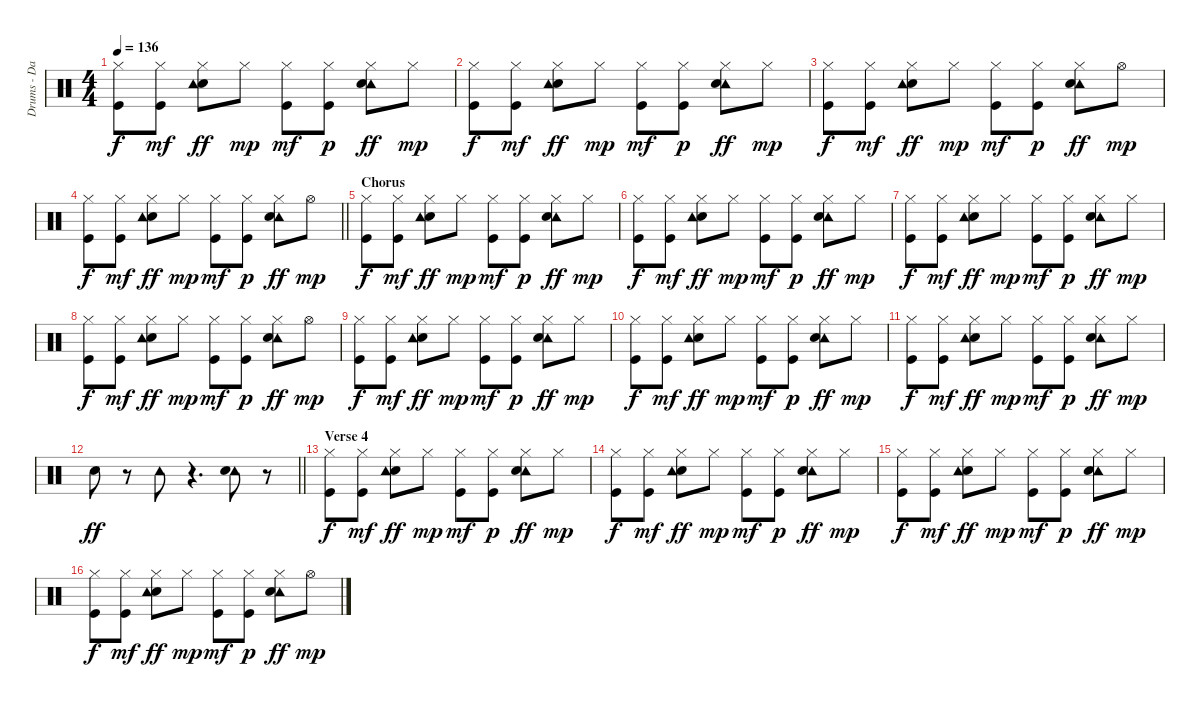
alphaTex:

\track ("Drums - Danny Smythe" "Drums - Da") {instrument percussion}
\staff {score}
\articulation defaults
\ts (4 4)
\tempo 136
\clef neutral
\ks c
("Hi-Hat (closed)" "Kick (hit)").8{dy f} ("Hi-Hat (closed)" "Kick (hit)").8{dy mf} ("Hi-Hat (closed)" "Electric Snare (hit)" "Tambourine (hit)").8{dy ff} "Hi-Hat (closed)".8{dy mp} ("Hi-Hat (closed)" "Kick (hit)").8{dy mf} ("Hi-Hat (closed)" "Kick (hit)").8{dy p} ("Tambourine (hit)" "Hi-Hat (closed)" "Electric Snare (hit)").8{dy ff} "Hi-Hat (closed)".8{dy mp} |
("Hi-Hat (closed)" "Kick (hit)").8{dy f} ("Hi-Hat (closed)" "Kick (hit)").8{dy mf} ("Hi-Hat (closed)" "Electric Snare (hit)" "Tambourine (hit)").8{dy ff} "Hi-Hat (closed)".8{dy mp} ("Hi-Hat (closed)" "Kick (hit)").8{dy mf} ("Hi-Hat (closed)" "Kick (hit)").8{dy p} ("Tambourine (hit)" "Hi-Hat (closed)" "Electric Snare (hit)").8{dy ff} "Hi-Hat (closed)".8{dy mp} |
("Hi-Hat (closed)" "Kick (hit)").8{dy f} ("Hi-Hat (closed)" "Kick (hit)").8{dy mf} ("Hi-Hat (closed)" "Electric Snare (hit)" "Tambourine (hit)").8{dy ff} "Hi-Hat (closed)".8{dy mp} ("Hi-Hat (closed)" "Kick (hit)").8{dy mf} ("Hi-Hat (closed)" "Kick (hit)").8{dy p} ("Tambourine (hit)" "Hi-Hat (closed)" "Electric Snare (hit)").8{dy ff} "Hi-Hat (open)".8{dy mp} |
\barLineRight lightlight
("Hi-Hat (closed)" "Kick (hit)").8{dy f} ("Hi-Hat (closed)" "Kick (hit)").8{dy mf} ("Hi-Hat (closed)" "Electric Snare (hit)" "Tambourine (hit)").8{dy ff} "Hi-Hat (closed)".8{dy mp} ("Hi-Hat (closed)" "Kick (hit)").8{dy mf} ("Hi-Hat (closed)" "Kick (hit)").8{dy p} ("Tambourine (hit)" "Hi-Hat (closed)" "Electric Snare (hit)").8{dy ff} "Hi-Hat (open)".8{dy mp} |
\section ("" "Chorus")
("Hi-Hat (closed)" "Kick (hit)").8{dy f} ("Hi-Hat (closed)" "Kick (hit)").8{dy mf} ("Hi-Hat (closed)" "Electric Snare (hit)" "Tambourine (hit)").8{dy ff} "Hi-Hat (closed)".8{dy mp} ("Hi-Hat (closed)" "Kick (hit)").8{dy mf} ("Hi-Hat (closed)" "Kick (hit)").8{dy p} ("Tambourine (hit)" "Hi-Hat (closed)" "Electric Snare (hit)").8{dy ff} "Hi-Hat (closed)".8{dy mp} |
("Hi-Hat (closed)" "Kick (hit)").8{dy f} ("Hi-Hat (closed)" "Kick (hit)").8{dy mf} ("Hi-Hat (closed)" "Electric Snare (hit)" "Tambourine (hit)").8{dy ff} "Hi-Hat (closed)".8{dy mp} ("Hi-Hat (closed)" "Kick (hit)").8{dy mf} ("Hi-Hat (closed)" "Kick (hit)").8{dy p} ("Tambourine (hit)" "Hi-Hat (closed)" "Electric Snare (hit)").8{dy ff} "Hi-Hat (closed)".8{dy mp} |
("Hi-Hat (closed)" "Kick (hit)").8{dy f} ("Hi-Hat (closed)" "Kick (hit)").8{dy mf} ("Hi-Hat (closed)" "Electric Snare (hit)" "Tambourine (hit)").8{dy ff} "Hi-Hat (closed)".8{dy mp} ("Hi-Hat (closed)" "Kick (hit)").8{dy mf} ("Hi-Hat (closed)" "Kick (hit)").8{dy p} ("Tambourine (hit)" "Hi-Hat (closed)" "Electric Snare (hit)").8{dy ff} "Hi-Hat (closed)".8{dy mp} |
("Hi-Hat (closed)" "Kick (hit)").8{dy f} ("Hi-Hat (closed)" "Kick (hit)").8{dy mf} ("Hi-Hat (closed)" "Electric Snare (hit)" "Tambourine (hit)").8{dy ff} "Hi-Hat (closed)".8{dy mp} ("Hi-Hat (closed)" "Kick (hit)").8{dy mf} ("Hi-Hat (closed)" "Kick (hit)").8{dy p} ("Tambourine (hit)" "Hi-Hat (closed)" "Electric Snare (hit)").8{dy ff} "Hi-Hat (open)".8{dy mp} |
("Hi-Hat (closed)" "Kick (hit)").8{dy f} ("Hi-Hat (closed)" "Kick (hit)").8{dy mf} ("Hi-Hat (closed)" "Electric Snare (hit)" "Tambourine (hit)").8{dy ff} "Hi-Hat (closed)".8{dy mp} ("Hi-Hat (closed)" "Kick (hit)").8{dy mf} ("Hi-Hat (closed)" "Kick (hit)").8{dy p} ("Tambourine (hit)" "Hi-Hat (closed)" "Electric Snare (hit)").8{dy ff} "Hi-Hat (closed)".8{dy mp} |
("Hi-Hat (closed)" "Kick (hit)").8{dy f} ("Hi-Hat (closed)" "Kick (hit)").8{dy mf} ("Hi-Hat (closed)" "Electric Snare (hit)" "Tambourine (hit)").8{dy ff} "Hi-Hat (closed)".8{dy mp} ("Hi-Hat (closed)" "Kick (hit)").8{dy mf} ("Hi-Hat (closed)" "Kick (hit)").8{dy p} ("Tambourine (hit)" "Hi-Hat (closed)" "Electric Snare (hit)").8{dy ff} "Hi-Hat (closed)".8{dy mp} |
("Hi-Hat (closed)" "Kick (hit)").8{dy f} ("Hi-Hat (closed)" "Kick (hit)").8{dy mf} ("Hi-Hat (closed)" "Electric Snare (hit)" "Tambourine (hit)").8{dy ff} "Hi-Hat (closed)".8{dy mp} ("Hi-Hat (closed)" "Kick (hit)").8{dy mf} ("Hi-Hat (closed)" "Kick (hit)").8{dy p} ("Tambourine (hit)" "Hi-Hat (closed)" "Electric Snare (hit)").8{dy ff} "Hi-Hat (closed)".8{dy mp} |
\barLineRight lightlight "Electric Snare (hit)".8{dy ff}
r.8 "Tambourine (hit)".8 r.4{d} ("Tambourine (hit)" "Electric Snare (hit)").8 r.8 |
\section ("" "Verse 4")
("Hi-Hat (closed)" "Kick (hit)").8{dy f} ("Hi-Hat (closed)" "Kick (hit)").8{dy mf} ("Hi-Hat (closed)" "Electric Snare (hit)" "Tambourine (hit)").8{dy ff} "Hi-Hat (closed)".8{dy mp} ("Hi-Hat (closed)" "Kick (hit)").8{dy mf} ("Hi-Hat (closed)" "Kick (hit)").8{dy p} ("Tambourine (hit)" "Hi-Hat (closed)" "Electric Snare (hit)").8{dy ff} "Hi-Hat (closed)".8{dy mp} |
("Hi-Hat (closed)" "Kick (hit)").8{dy f} ("Hi-Hat (closed)" "Kick (hit)").8{dy mf} ("Hi-Hat (closed)" "Electric Snare (hit)" "Tambourine (hit)").8{dy ff} "Hi-Hat (closed)".8{dy mp} ("Hi-Hat (closed)" "Kick (hit)").8{dy mf} ("Hi-Hat (closed)" "Kick (hit)").8{dy p} ("Tambourine (hit)" "Hi-Hat (closed)" "Electric Snare (hit)").8{dy ff} "Hi-Hat (closed)".8{dy mp} |
("Hi-Hat (closed)" "Kick (hit)").8{dy f} ("Hi-Hat (closed)" "Kick (hit)").8{dy mf} ("Hi-Hat (closed)" "Electric Snare (hit)" "Tambourine (hit)").8{dy ff} "Hi-Hat (closed)".8{dy mp} ("Hi-Hat (closed)" "Kick (hit)").8{dy mf} ("Hi-Hat (closed)" "Kick (hit)").8{dy p} ("Tambourine (hit)" "Hi-Hat (closed)" "Electric Snare (hit)").8{dy ff} "Hi-Hat (closed)".8{dy mp} |
("Hi-Hat (closed)" "Kick (hit)").8{dy f} ("Hi-Hat (closed)" "Kick (hit)").8{dy mf} ("Hi-Hat (closed)" "Electric Snare (hit)" "Tambourine (hit)").8{dy ff} "Hi-Hat (closed)".8{dy mp} ("Hi-Hat (closed)" "Kick (hit)").8{dy mf} ("Hi-Hat (closed)" "Kick (hit)").8{dy p} ("Tambourine (hit)" "Hi-Hat (closed)" "Electric Snare (hit)").8{dy ff} "Hi-Hat (open)".8{dy mp}
